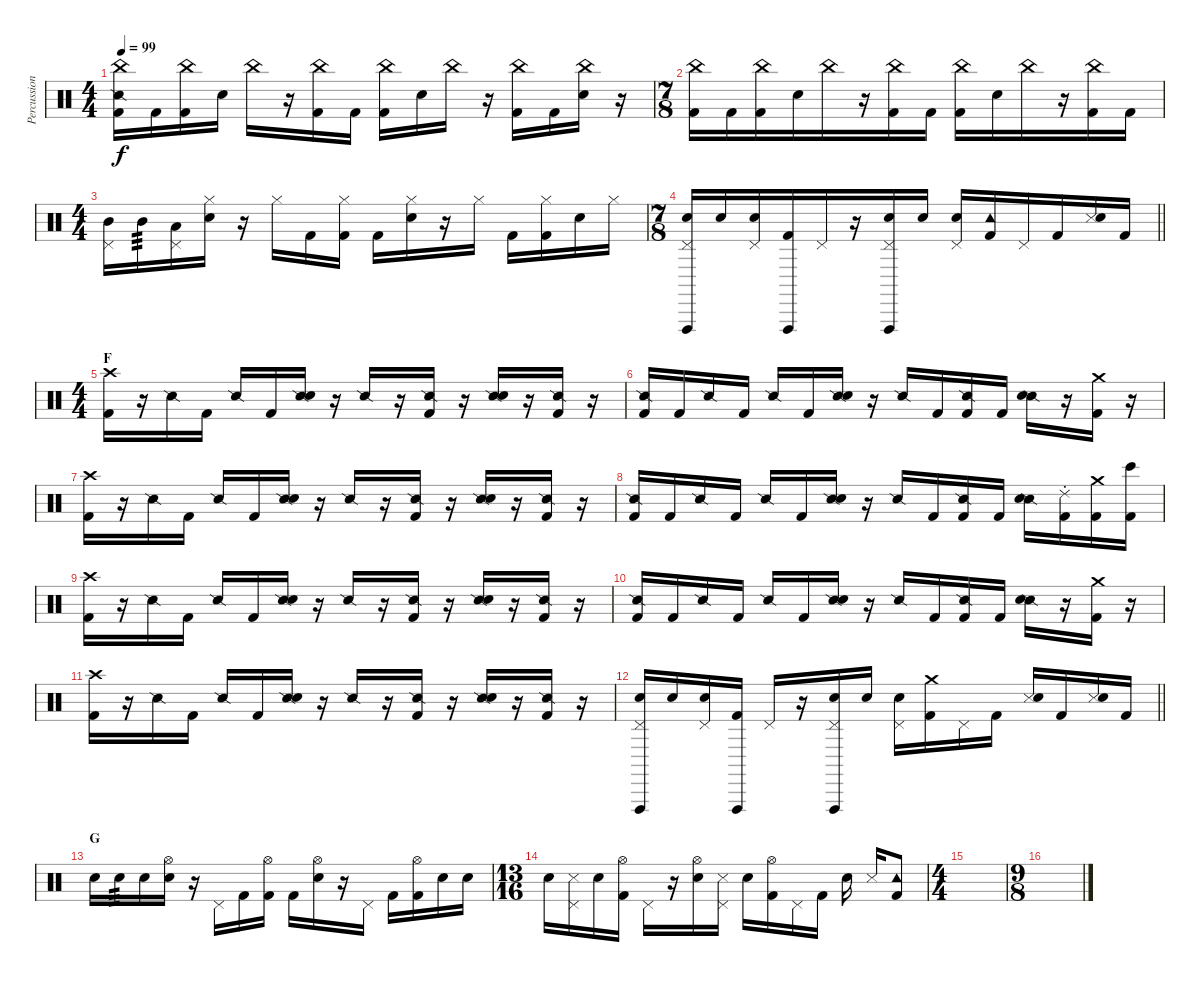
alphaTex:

\track ("Percussion" "Percussion") {instrument percussion}
\staff {score}
\articulation defaults
\ts (4 4)
\tempo 99
\clef neutral
\ks c
("China (hit)" "Snare (side stick) 2" "Kick (hit) 2").16{dy f} "Kick (hit) 2".16 ("China (hit)" "Kick (hit) 2").16 "Snare (hit) 2".16 "China (hit)".16 r.16 ("China (hit)" "Kick (hit) 2").16 "Kick (hit) 2".16 ("China (hit)" "Kick (hit) 2").16 "Snare (hit) 2".16 "China (hit)".16 r.16 ("China (hit)" "Kick (hit) 2").16 "Kick (hit) 2".16 ("China (hit)" "Snare (hit) 2").16 r.16 |
\ts (7 8)
("China (hit)" "Kick (hit) 2").16 "Kick (hit) 2".16 ("China (hit)" "Kick (hit) 2").16 "Snare (hit) 2".16 "China (hit)".16 r.16 ("China (hit)" "Kick (hit) 2").16 "Kick (hit) 2".16 ("China (hit)" "Kick (hit) 2").16 "Snare (hit) 2".16 "China (hit)".16 r.16 ("China (hit)" "Kick (hit) 2").16 "Kick (hit) 2".16 |
\ts (4 4)
("Pedal Hi-Hat (hit)" "Mid Tom (hit)").16 "Mid Tom (hit)".16{tp 3} ("Pedal Hi-Hat (hit)" "Low Tom (hit)").16 ("Hi-Hat (closed)" "Snare (hit) 2").16 r.16 "Hi-Hat (closed)".16 "Kick (hit) 2".16 ("Hi-Hat (closed)" "Kick (hit) 2").16 "Kick (hit) 2".16 ("Hi-Hat (closed)" "Snare (hit) 2").16 r.16 "Hi-Hat (closed)".16 "Kick (hit) 2".16 ("Hi-Hat (closed)" "Kick (hit) 2").16 "Snare (hit) 2".16 "Hi-Hat (closed)".16 |
\ts (7 8)
\barLineRight lightlight
("Vibraslap (hit)" "Pedal Hi-Hat (hit)" "Snare (hit) 2").16 "Snare (hit) 2".16 ("Pedal Hi-Hat (hit)" "Snare (hit) 2").16 ("Vibraslap (hit)" "Kick (hit) 2").16 "Pedal Hi-Hat (hit)".16 r.16 ("Vibraslap (hit)" "Pedal Hi-Hat (hit)" "Snare (hit) 2").16 "Snare (hit) 2".16 ("Pedal Hi-Hat (hit)" "Snare (hit) 2").16 ("Tambourine (hit)" "Kick (hit) 2").16 "Pedal Hi-Hat (hit)".16 "Kick (hit) 2".16 ("Metronome (hit)" "Snare (hit) 2").16{bu 120} "Kick (hit) 2".16 |
\ts (4 4)
\section ("" "F")
("Crash high (hit)" "Kick (hit) 2").16 r.16 "Snare (side stick) 2".16 "Kick (hit) 2".16 "Snare (side stick) 2".16 "Kick (hit) 2".16 ("Snare (side stick) 2" "Snare (hit) 2").16 r.16 "Snare (side stick) 2".16 r.16 ("Snare (side stick) 2" "Kick (hit) 2").16 r.16 ("Snare (side stick) 2" "Snare (hit) 2").16 r.16 ("Snare (side stick) 2" "Kick (hit) 2").16 r.16 |
("Snare (side stick) 2" "Kick (hit) 2").16 "Kick (hit) 2".16 "Snare (side stick) 2".16 "Kick (hit) 2".16 "Snare (side stick) 2".16 "Kick (hit) 2".16 ("Snare (side stick) 2" "Snare (hit) 2").16 r.16 "Snare (side stick) 2".16 "Kick (hit) 2".16 ("Snare (side stick) 2" "Kick (hit) 2").16 "Kick (hit) 2".16 ("Snare (side stick) 2" "Snare (hit) 2").16 r.16 ("Crash medium (hit)" "Kick (hit) 2").16 r.16 |
("Crash high (hit)" "Kick (hit) 2").16 r.16 "Snare (side stick) 2".16 "Kick (hit) 2".16 "Snare (side stick) 2".16 "Kick (hit) 2".16 ("Snare (side stick) 2" "Snare (hit) 2").16 r.16 "Snare (side stick) 2".16 r.16 ("Snare (side stick) 2" "Kick (hit) 2").16 r.16 ("Snare (side stick) 2" "Snare (hit) 2").16 r.16 ("Snare (side stick) 2" "Kick (hit) 2").16 r.16 |
("Snare (side stick) 2" "Kick (hit) 2").16 "Kick (hit) 2".16 "Snare (side stick) 2".16 "Kick (hit) 2".16 "Snare (side stick) 2".16 "Kick (hit) 2".16 ("Snare (side stick) 2" "Snare (hit) 2").16 r.16 "Snare (side stick) 2".16 "Kick (hit) 2".16 ("Snare (side stick) 2" "Kick (hit) 2").16 "Kick (hit) 2".16 ("Snare (side stick) 2" "Snare (hit) 2").16 ("Ride (choke) 2" "Kick (hit) 2").16 ("Crash medium (hit)" "Kick (hit) 2").16 ("Bongo High (hit)" "Kick (hit) 2").16 |
("Crash high (hit)" "Kick (hit) 2").16 r.16 "Snare (side stick) 2".16 "Kick (hit) 2".16 "Snare (side stick) 2".16 "Kick (hit) 2".16 ("Snare (side stick) 2" "Snare (hit) 2").16 r.16 "Snare (side stick) 2".16 r.16 ("Snare (side stick) 2" "Kick (hit) 2").16 r.16 ("Snare (side stick) 2" "Snare (hit) 2").16 r.16 ("Snare (side stick) 2" "Kick (hit) 2").16 r.16 |
("Snare (side stick) 2" "Kick (hit) 2").16 "Kick (hit) 2".16 "Snare (side stick) 2".16 "Kick (hit) 2".16 "Snare (side stick) 2".16 "Kick (hit) 2".16 ("Snare (side stick) 2" "Snare (hit) 2").16 r.16 "Snare (side stick) 2".16 "Kick (hit) 2".16 ("Snare (side stick) 2" "Kick (hit) 2").16 "Kick (hit) 2".16 ("Snare (side stick) 2" "Snare (hit) 2").16 r.16 ("Crash medium (hit)" "Kick (hit) 2").16 r.16 |
("Crash high (hit)" "Kick (hit) 2").16 r.16 "Snare (side stick) 2".16 "Kick (hit) 2".16 "Snare (side stick) 2".16 "Kick (hit) 2".16 ("Snare (side stick) 2" "Snare (hit) 2").16 r.16 "Snare (side stick) 2".16 r.16 ("Snare (side stick) 2" "Kick (hit) 2").16 r.16 ("Snare (side stick) 2" "Snare (hit) 2").16 r.16 ("Snare (side stick) 2" "Kick (hit) 2").16 r.16 |
\barLineRight lightlight
("Vibraslap (hit)" "Pedal Hi-Hat (hit)" "Snare (hit) 2").16 "Snare (hit) 2".16 ("Pedal Hi-Hat (hit)" "Snare (hit) 2").16 ("Vibraslap (hit)" "Kick (hit) 2").16 "Pedal Hi-Hat (hit)".16 r.16 ("Vibraslap (hit)" "Pedal Hi-Hat (hit)" "Snare (hit) 2").16 "Snare (hit) 2".16 ("Pedal Hi-Hat (hit)" "Snare (hit) 2").16 ("Crash medium (hit)" "Kick (hit) 2").16 "Pedal Hi-Hat (hit)".16 "Kick (hit) 2".16 ("Metronome (hit)" "Snare (hit) 2").16{bu 120} "Kick (hit) 2".16 ("Metronome (hit)" "Snare (hit) 2").16{bu 120} "Kick (hit) 2".16 |
\section ("" "G")
"Snare (hit) 2".16 "Snare (hit) 2".16{tp 3} "Snare (hit) 2".16 ("Hi-Hat (open)" "Snare (hit) 2").16 r.16 "Pedal Hi-Hat (hit)".16 "Kick (hit) 2".16 ("Hi-Hat (open)" "Kick (hit) 2").16 "Kick (hit) 2".16 ("Hi-Hat (open)" "Snare (hit) 2").16 r.16 "Pedal Hi-Hat (hit)".16 "Kick (hit) 2".16 ("Hi-Hat (open)" "Kick (hit) 2").16 "Snare (hit) 2".16 "Snare (hit)".16 |
\ts (13 16)
"Snare (hit) 2".16 ("Pedal Hi-Hat (hit)" "Metronome (hit)").16 "Snare (hit) 2".16 ("Hi-Hat (open)" "Kick (hit) 2").16 "Pedal Hi-Hat (hit)".16 r.16 ("Hi-Hat (open)" "Snare (hit) 2").16 ("Pedal Hi-Hat (hit)" "Metronome (hit)").16 "Snare (hit) 2".16 ("Hi-Hat (open)" "Kick (hit) 2").16 "Pedal Hi-Hat (hit)".16 "Kick (hit) 2".16 "Snare (hit) 2".16 "Metronome (hit)".16 ("Tambourine (hit)" "Kick (hit) 2").8 |
\ts (4 4)
|
\ts (9 8)
